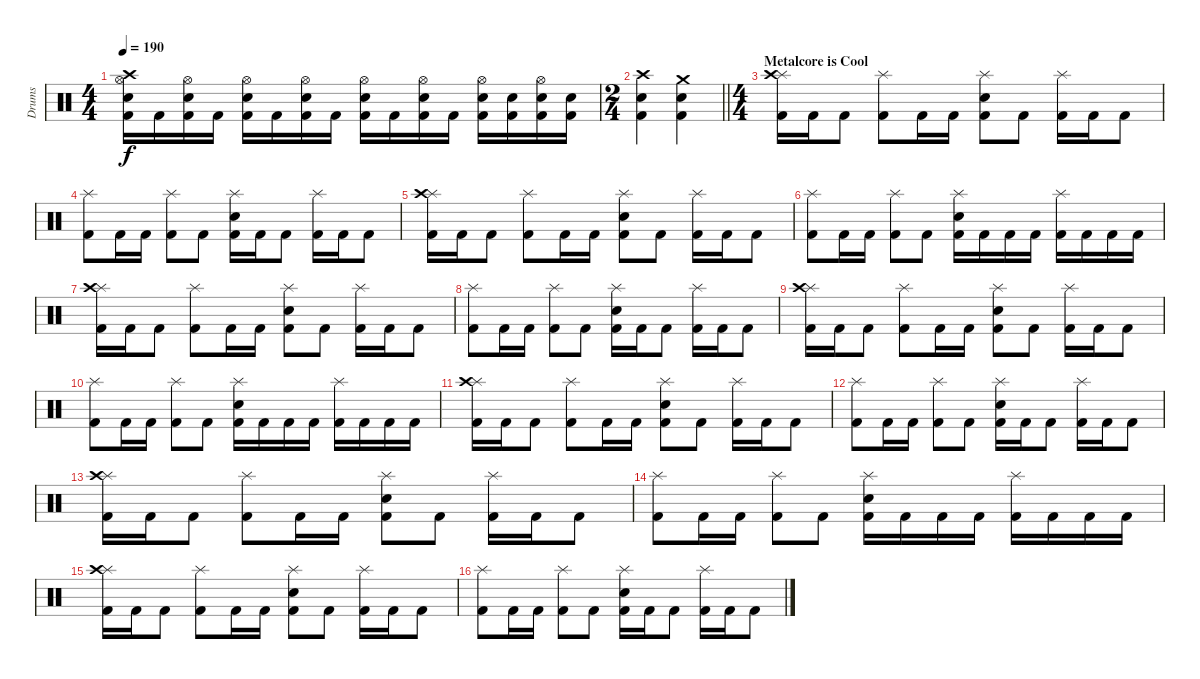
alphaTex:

\track ("Drums" "Drums") {instrument percussion}
\staff {score}
\articulation defaults
\ts (4 4)
\tempo 190
\clef neutral
\ks c
("Crash high (hit)" "Hi-Hat (open)" "Snare (hit) 2" "Kick (hit) 2").16{dy f} "Kick (hit) 2".16 ("Hi-Hat (open)" "Snare (hit) 2" "Kick (hit) 2").16 "Kick (hit) 2".16 ("Hi-Hat (open)" "Snare (hit) 2" "Kick (hit) 2").16 "Kick (hit) 2".16 ("Hi-Hat (open)" "Snare (hit) 2" "Kick (hit) 2").16 "Kick (hit) 2".16 ("Hi-Hat (open)" "Snare (hit) 2" "Kick (hit) 2").16 "Kick (hit) 2".16 ("Hi-Hat (open)" "Snare (hit) 2" "Kick (hit) 2").16 "Kick (hit) 2".16 ("Hi-Hat (open)" "Snare (hit) 2" "Kick (hit) 2").16 ("Snare (hit) 2" "Kick (hit) 2").16 ("Hi-Hat (open)" "Snare (hit) 2" "Kick (hit) 2").16 ("Snare (hit) 2" "Kick (hit) 2").16 |
\ts (2 4)
\barLineRight lightlight
("Crash high (hit)" "Snare (hit) 2" "Kick (hit) 2").4 ("Crash medium (hit)" "Snare (hit) 2" "Kick (hit) 2").4 |
\ts (4 4)
\section ("" "Metalcore is Cool")
("Splash (hit)" "Crash high (hit)" "Kick (hit) 2").16 "Kick (hit) 2".16 "Kick (hit) 2".8 ("Splash (hit)" "Kick (hit) 2").8 "Kick (hit) 2".16 "Kick (hit) 2".16 ("Splash (hit)" "Snare (hit) 2" "Kick (hit) 2").8 "Kick (hit) 2".8 ("Splash (hit)" "Kick (hit) 2").16 "Kick (hit) 2".16 "Kick (hit) 2".8 |
("Splash (hit)" "Kick (hit) 2").8 "Kick (hit) 2".16 "Kick (hit) 2".16 ("Splash (hit)" "Kick (hit) 2").8 "Kick (hit) 2".8 ("Splash (hit)" "Snare (hit) 2" "Kick (hit) 2").16 "Kick (hit) 2".16 "Kick (hit) 2".8 ("Splash (hit)" "Kick (hit) 2").16 "Kick (hit) 2".16 "Kick (hit) 2".8 |
("Splash (hit)" "Crash high (hit)" "Kick (hit) 2").16 "Kick (hit) 2".16 "Kick (hit) 2".8 ("Splash (hit)" "Kick (hit) 2").8 "Kick (hit) 2".16 "Kick (hit) 2".16 ("Splash (hit)" "Snare (hit) 2" "Kick (hit) 2").8 "Kick (hit) 2".8 ("Splash (hit)" "Kick (hit) 2").16 "Kick (hit) 2".16 "Kick (hit) 2".8 |
("Splash (hit)" "Kick (hit) 2").8 "Kick (hit) 2".16 "Kick (hit) 2".16 ("Splash (hit)" "Kick (hit) 2").8 "Kick (hit) 2".8 ("Splash (hit)" "Snare (hit) 2" "Kick (hit) 2").16 "Kick (hit) 2".16 "Kick (hit) 2".16 "Kick (hit) 2".16 ("Splash (hit)" "Kick (hit) 2").16 "Kick (hit) 2".16 "Kick (hit) 2".16 "Kick (hit) 2".16 |
("Splash (hit)" "Crash high (hit)" "Kick (hit) 2").16 "Kick (hit) 2".16 "Kick (hit) 2".8 ("Splash (hit)" "Kick (hit) 2").8 "Kick (hit) 2".16 "Kick (hit) 2".16 ("Splash (hit)" "Snare (hit) 2" "Kick (hit) 2").8 "Kick (hit) 2".8 ("Splash (hit)" "Kick (hit) 2").16 "Kick (hit) 2".16 "Kick (hit) 2".8 |
("Splash (hit)" "Kick (hit) 2").8 "Kick (hit) 2".16 "Kick (hit) 2".16 ("Splash (hit)" "Kick (hit) 2").8 "Kick (hit) 2".8 ("Splash (hit)" "Snare (hit) 2" "Kick (hit) 2").16 "Kick (hit) 2".16 "Kick (hit) 2".8 ("Splash (hit)" "Kick (hit) 2").16 "Kick (hit) 2".16 "Kick (hit) 2".8 |
("Splash (hit)" "Crash high (hit)" "Kick (hit) 2").16 "Kick (hit) 2".16 "Kick (hit) 2".8 ("Splash (hit)" "Kick (hit) 2").8 "Kick (hit) 2".16 "Kick (hit) 2".16 ("Splash (hit)" "Snare (hit) 2" "Kick (hit) 2").8 "Kick (hit) 2".8 ("Splash (hit)" "Kick (hit) 2").16 "Kick (hit) 2".16 "Kick (hit) 2".8 |
("Splash (hit)" "Kick (hit) 2").8 "Kick (hit) 2".16 "Kick (hit) 2".16 ("Splash (hit)" "Kick (hit) 2").8 "Kick (hit) 2".8 ("Splash (hit)" "Snare (hit) 2" "Kick (hit) 2").16 "Kick (hit) 2".16 "Kick (hit) 2".16 "Kick (hit) 2".16 ("Splash (hit)" "Kick (hit) 2").16 "Kick (hit) 2".16 "Kick (hit) 2".16 "Kick (hit) 2".16 |
("Splash (hit)" "Crash high (hit)" "Kick (hit) 2").16 "Kick (hit) 2".16 "Kick (hit) 2".8 ("Splash (hit)" "Kick (hit) 2").8 "Kick (hit) 2".16 "Kick (hit) 2".16 ("Splash (hit)" "Snare (hit) 2" "Kick (hit) 2").8 "Kick (hit) 2".8 ("Splash (hit)" "Kick (hit) 2").16 "Kick (hit) 2".16 "Kick (hit) 2".8 |
("Splash (hit)" "Kick (hit) 2").8 "Kick (hit) 2".16 "Kick (hit) 2".16 ("Splash (hit)" "Kick (hit) 2").8 "Kick (hit) 2".8 ("Splash (hit)" "Snare (hit) 2" "Kick (hit) 2").16 "Kick (hit) 2".16 "Kick (hit) 2".8 ("Splash (hit)" "Kick (hit) 2").16 "Kick (hit) 2".16 "Kick (hit) 2".8 |
("Splash (hit)" "Crash high (hit)" "Kick (hit) 2").16 "Kick (hit) 2".16 "Kick (hit) 2".8 ("Splash (hit)" "Kick (hit) 2").8 "Kick (hit) 2".16 "Kick (hit) 2".16 ("Splash (hit)" "Snare (hit) 2" "Kick (hit) 2").8 "Kick (hit) 2".8 ("Splash (hit)" "Kick (hit) 2").16 "Kick (hit) 2".16 "Kick (hit) 2".8 |
("Splash (hit)" "Kick (hit) 2").8 "Kick (hit) 2".16 "Kick (hit) 2".16 ("Splash (hit)" "Kick (hit) 2").8 "Kick (hit) 2".8 ("Splash (hit)" "Snare (hit) 2" "Kick (hit) 2").16 "Kick (hit) 2".16 "Kick (hit) 2".16 "Kick (hit) 2".16 ("Splash (hit)" "Kick (hit) 2").16 "Kick (hit) 2".16 "Kick (hit) 2".16 "Kick (hit) 2".16 |
("Splash (hit)" "Crash high (hit)" "Kick (hit) 2").16 "Kick (hit) 2".16 "Kick (hit) 2".8 ("Splash (hit)" "Kick (hit) 2").8 "Kick (hit) 2".16 "Kick (hit) 2".16 ("Splash (hit)" "Snare (hit) 2" "Kick (hit) 2").8 "Kick (hit) 2".8 ("Splash (hit)" "Kick (hit) 2").16 "Kick (hit) 2".16 "Kick (hit) 2".8 |
("Splash (hit)" "Kick (hit) 2").8 "Kick (hit) 2".16 "Kick (hit) 2".16 ("Splash (hit)" "Kick (hit) 2").8 "Kick (hit) 2".8 ("Splash (hit)" "Snare (hit) 2" "Kick (hit) 2").16 "Kick (hit) 2".16 "Kick (hit) 2".8 ("Splash (hit)" "Kick (hit) 2").16 "Kick (hit) 2".16 "Kick (hit) 2".8
